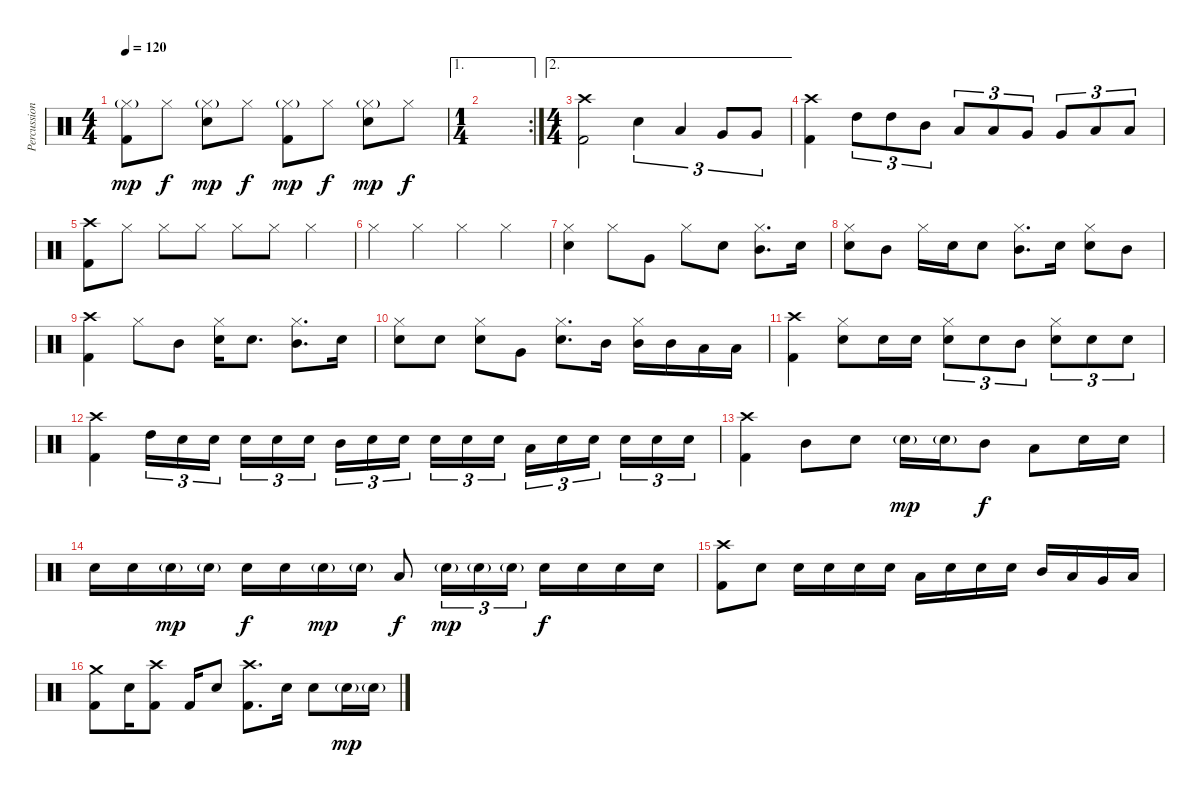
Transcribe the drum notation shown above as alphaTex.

\track ("Percussion" "Percussion") {instrument percussion}
\staff {score}
\articulation defaults
\ts (4 4)
\tempo 120
\clef neutral
\ks c
("Hi-Hat (closed)"{g} "Kick (hit) 2").8{dy mp} "Hi-Hat (closed)".8{dy f} ("Hi-Hat (closed)"{g} "Electric Snare (hit)").8{dy mp} "Hi-Hat (closed)".8{dy f} ("Hi-Hat (closed)"{g} "Kick (hit) 2").8{dy mp} "Hi-Hat (closed)".8{dy f} ("Hi-Hat (closed)"{g} "Electric Snare (hit)").8{dy mp} "Hi-Hat (closed)".8{dy f} |
\ae 1
\rc 2
\ts (1 4)
|
\ae 2
\ts (4 4)
("Crash high (hit)" "Kick (hit) 2").2 "Electric Snare (hit)".4{tu (3 2)} "Low Tom (hit)".4{tu (3 2)} "Very Low Tom (hit)".8{tu (3 2)} "Very Low Tom (hit)".8{tu (3 2)} |
("Crash high (hit)" "Kick (hit) 2").4 "High Tom (hit)".8{tu (3 2)} "High Tom (hit)".8{tu (3 2)} "Mid Tom (hit)".8{tu (3 2)} "Low Tom (hit)".8{tu (3 2)} "Low Tom (hit)".8{tu (3 2)} "Very Low Tom (hit)".8{tu (3 2)} "Very Low Tom (hit)".8{tu (3 2)} "Low Floor Tom (hit)".8{tu (3 2)} "Low Floor Tom (hit)".8{tu (3 2)} |
("Crash high (hit)" "Kick (hit) 2").8 "Hi-Hat (closed)".8 "Hi-Hat (closed)".8 "Hi-Hat (closed)".8 "Hi-Hat (closed)".8 "Hi-Hat (closed)".8 "Hi-Hat (closed)".4 |
"Hi-Hat (closed)".4 "Hi-Hat (closed)".4 "Hi-Hat (closed)".4 "Hi-Hat (closed)".4 |
("Hi-Hat (closed)" "Electric Snare (hit)").4 "Hi-Hat (closed)".8 "Very Low Tom (hit)".8 "Hi-Hat (closed)".8 "Electric Snare (hit)".8 ("Hi-Hat (closed)" "Mid Tom (hit)").8{d} "Electric Snare (hit)".16 |
("Hi-Hat (closed)" "Electric Snare (hit)").8 "Mid Tom (hit)".8 "Hi-Hat (closed)".16 "Electric Snare (hit)".16 "Electric Snare (hit)".8 ("Hi-Hat (closed)" "Mid Tom (hit)").8{d} "Electric Snare (hit)".16 ("Hi-Hat (closed)" "Electric Snare (hit)").8 "Mid Tom (hit)".8 |
("Crash high (hit)" "Kick (hit) 2").4 "Hi-Hat (closed)".8 "Mid Tom (hit)".8 ("Hi-Hat (closed)" "Electric Snare (hit)").16 "Electric Snare (hit)".8{d} ("Hi-Hat (closed)" "Mid Tom (hit)").8{d} "Electric Snare (hit)".16 |
("Hi-Hat (closed)" "Electric Snare (hit)").8 "Electric Snare (hit)".8 ("Hi-Hat (closed)" "Electric Snare (hit)").8 "Very Low Tom (hit)".8 ("Hi-Hat (closed)" "Electric Snare (hit)").8{d} "Mid Tom (hit)".16 ("Hi-Hat (closed)" "Mid Tom (hit)").16 "Mid Tom (hit)".16 "Low Tom (hit)".16 "Low Tom (hit)".16 |
("Crash high (hit)" "Kick (hit) 2").4 ("Hi-Hat (closed)" "Electric Snare (hit)").8 "Electric Snare (hit)".16 "Electric Snare (hit)".16 ("Hi-Hat (closed)" "Electric Snare (hit)").8{tu (3 2)} "Electric Snare (hit)".8{tu (3 2)} "Mid Tom (hit)".8{tu (3 2)} ("Hi-Hat (closed)" "Electric Snare (hit)").8{tu (3 2)} "Electric Snare (hit)".8{tu (3 2)} "Electric Snare (hit)".8{tu (3 2)} |
("Crash high (hit)" "Kick (hit) 2").4 "High Tom (hit)".16{tu (3 2)} "Electric Snare (hit)".16{tu (3 2) volume 9} "Electric Snare (hit)".16{tu (3 2) beam splitsecondary} "Electric Snare (hit)".16{tu (3 2)} "Electric Snare (hit)".16{tu (3 2)} "Electric Snare (hit)".16{tu (3 2)} "Mid Tom (hit)".16{tu (3 2)} "Electric Snare (hit)".16{tu (3 2) volume 9} "Electric Snare (hit)".16{tu (3 2) beam splitsecondary} "Electric Snare (hit)".16{tu (3 2)} "Electric Snare (hit)".16{tu (3 2)} "Electric Snare (hit)".16{tu (3 2)} "Low Tom (hit)".16{tu (3 2)} "Electric Snare (hit)".16{tu (3 2) volume 9} "Electric Snare (hit)".16{tu (3 2) beam splitsecondary} "Electric Snare (hit)".16{tu (3 2)} "Electric Snare (hit)".16{tu (3 2)} "Electric Snare (hit)".16{tu (3 2)} |
("Crash high (hit)" "Kick (hit) 2").4{volume 13} "Mid Tom (hit)".8 "Electric Snare (hit)".8 "Electric Snare (hit)"{g}.16{dy mp} "Electric Snare (hit)"{g}.16 "Mid Tom (hit)".8{dy f} "Low Floor Tom (hit)".8 "Electric Snare (hit)".16 "Electric Snare (hit)".16 |
"Electric Snare (hit)".16 "Electric Snare (hit)".16 "Electric Snare (hit)"{g}.16{dy mp} "Electric Snare (hit)"{g}.16 "Electric Snare (hit)".16{dy f} "Electric Snare (hit)".16 "Electric Snare (hit)"{g}.16{dy mp} "Electric Snare (hit)"{g}.16 "Low Tom (hit)".8{dy f} "Electric Snare (hit)"{g}.16{tu (3 2) dy mp} "Electric Snare (hit)"{g}.16{tu (3 2)} "Electric Snare (hit)"{g}.16{tu (3 2)} "Electric Snare (hit)".16{dy f} "Electric Snare (hit)".16 "Electric Snare (hit)".16 "Electric Snare (hit)".16 |
("Crash high (hit)" "Kick (hit) 2").8 "Electric Snare (hit)".8 "Electric Snare (hit)".16 "Electric Snare (hit)".16 "Electric Snare (hit)".16 "Electric Snare (hit)".16 "Low Floor Tom (hit)".16 "Electric Snare (hit)".16 "Electric Snare (hit)".16 "Electric Snare (hit)".16 "Mid Tom (hit)".16 "Low Tom (hit)".16 "Very Low Tom (hit)".16 "Low Floor Tom (hit)".16 |
("Crash medium (hit)" "Kick (hit) 2").8 "Electric Snare (hit)".16 ("Crash high (hit)" "Kick (hit) 2").8 "Kick (hit) 2".16 "Electric Snare (hit)".8 ("Crash high (hit)" "Kick (hit) 2").8{d} "Electric Snare (hit)".16 "Electric Snare (hit)".8 "Electric Snare (hit)"{g}.16{dy mp} "Electric Snare (hit)"{g}.16
